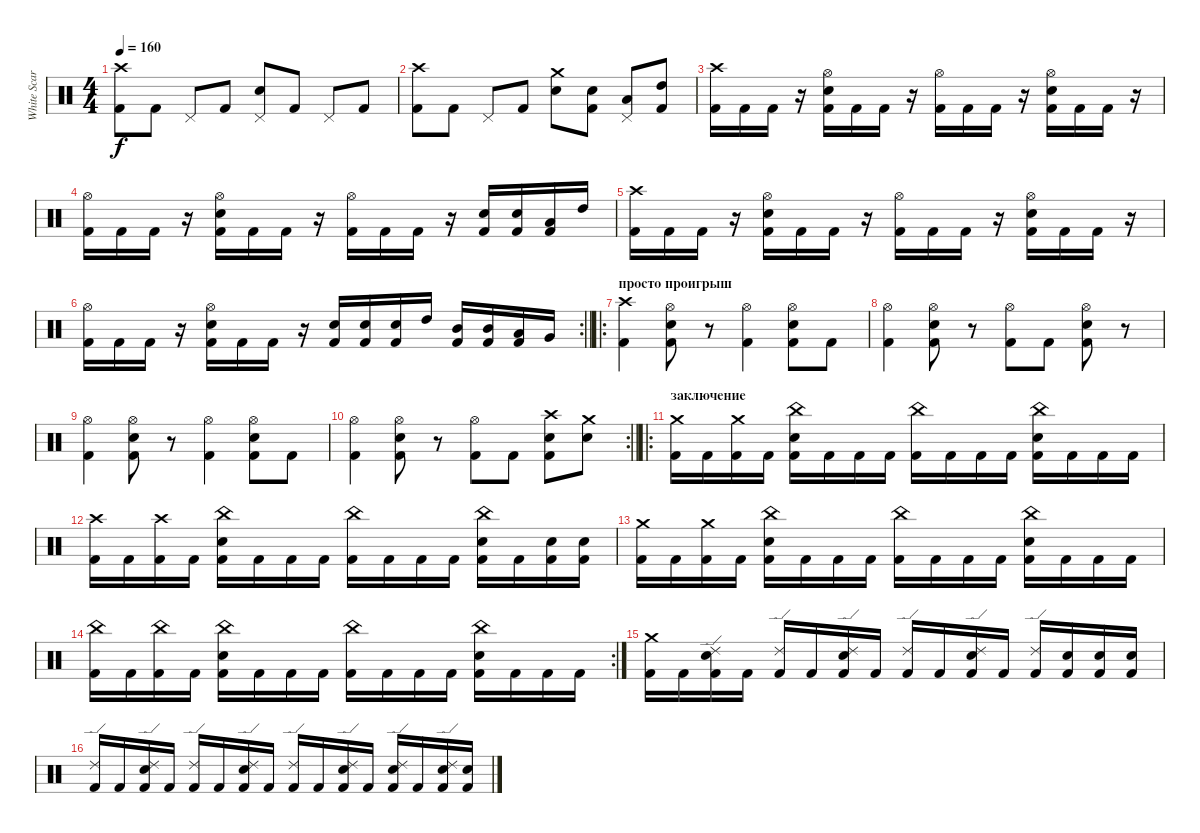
\track ("White Scar" "White Scar") {instrument percussion}
\staff {score}
\articulation defaults
\ts (4 4)
\tempo 160
\clef neutral
\ks c
("Crash high (hit)" "Kick (hit) 2").8{dy f} "Kick (hit) 2".8 "Pedal Hi-Hat (hit)".8 "Kick (hit) 2".8 ("Pedal Hi-Hat (hit)" "Snare (hit) 2").8 "Kick (hit) 2".8 "Pedal Hi-Hat (hit)".8 "Kick (hit) 2".8 |
("Crash high (hit)" "Kick (hit) 2").8 "Kick (hit) 2".8 "Pedal Hi-Hat (hit)".8 "Kick (hit) 2".8 ("Crash medium (hit)" "Snare (hit) 2").8 ("Snare (hit) 2" "Kick (hit) 2").8 ("Pedal Hi-Hat (hit)" "Low Tom (hit)").8 ("High Tom (hit)" "Kick (hit) 2").8 |
("Crash high (hit)" "Kick (hit) 2").16 "Kick (hit) 2".16 "Kick (hit) 2".16 r.16 ("Snare (hit) 2" "Hi-Hat (open)" "Kick (hit) 2").16 "Kick (hit) 2".16 "Kick (hit) 2".16 r.16 ("Hi-Hat (open)" "Kick (hit) 2").16 "Kick (hit) 2".16 "Kick (hit) 2".16 r.16 ("Snare (hit) 2" "Hi-Hat (open)" "Kick (hit) 2").16 "Kick (hit) 2".16 "Kick (hit) 2".16 r.16 |
("Hi-Hat (open)" "Kick (hit) 2").16 "Kick (hit) 2".16 "Kick (hit) 2".16 r.16 ("Snare (hit) 2" "Hi-Hat (open)" "Kick (hit) 2").16 "Kick (hit) 2".16 "Kick (hit) 2".16 r.16 ("Hi-Hat (open)" "Kick (hit) 2").16 "Kick (hit) 2".16 "Kick (hit) 2".16 r.16 ("Snare (hit) 2" "Kick (hit) 2").16 ("Snare (hit) 2" "Kick (hit) 2").16 ("Low Tom (hit)" "Kick (hit) 2").16 "High Tom (hit)".16 |
("Crash high (hit)" "Kick (hit) 2").16 "Kick (hit) 2".16 "Kick (hit) 2".16 r.16 ("Snare (hit) 2" "Hi-Hat (open)" "Kick (hit) 2").16 "Kick (hit) 2".16 "Kick (hit) 2".16 r.16 ("Hi-Hat (open)" "Kick (hit) 2").16 "Kick (hit) 2".16 "Kick (hit) 2".16 r.16 ("Snare (hit) 2" "Hi-Hat (open)" "Kick (hit) 2").16 "Kick (hit) 2".16 "Kick (hit) 2".16 r.16 |
\rc 2
\barLineRight lightlight
("Hi-Hat (open)" "Kick (hit) 2").16 "Kick (hit) 2".16 "Kick (hit) 2".16 r.16 ("Snare (hit) 2" "Hi-Hat (open)" "Kick (hit) 2").16 "Kick (hit) 2".16 "Kick (hit) 2".16 r.16 ("Snare (hit) 2" "Kick (hit) 2").16 ("Snare (hit) 2" "Kick (hit) 2").16 ("Snare (hit) 2" "Kick (hit) 2").16 "High Tom (hit)".16 ("Mid Tom (hit)" "Kick (hit) 2").16 ("Mid Tom (hit)" "Kick (hit) 2").16 ("Low Tom (hit)" "Kick (hit) 2").16 "Very Low Tom (hit)".16 |
\ro
\section ("" "просто проигрыш")
("Crash high (hit)" "Kick (hit) 2").4 ("Hi-Hat (open)" "Snare (hit) 2" "Kick (hit) 2").8 r.8 ("Hi-Hat (open)" "Kick (hit) 2").4 ("Hi-Hat (open)" "Snare (hit) 2" "Kick (hit) 2").8 "Kick (hit) 2".8 |
("Hi-Hat (open)" "Kick (hit) 2").4 ("Hi-Hat (open)" "Snare (hit) 2" "Kick (hit) 2").8 r.8 ("Hi-Hat (open)" "Kick (hit) 2").8 "Kick (hit) 2".8 ("Hi-Hat (open)" "Snare (hit) 2" "Kick (hit) 2").8 r.8 |
("Hi-Hat (open)" "Kick (hit) 2").4 ("Hi-Hat (open)" "Snare (hit) 2" "Kick (hit) 2").8 r.8 ("Hi-Hat (open)" "Kick (hit) 2").4 ("Hi-Hat (open)" "Snare (hit) 2" "Kick (hit) 2").8 "Kick (hit) 2".8 |
\rc 2
\barLineRight lightlight
("Hi-Hat (open)" "Kick (hit) 2").4 ("Hi-Hat (open)" "Snare (hit) 2" "Kick (hit) 2").8 r.8 ("Hi-Hat (open)" "Kick (hit) 2").8 "Kick (hit) 2".8 ("Crash high (hit)" "Snare (hit) 2" "Kick (hit) 2").8 ("Crash medium (hit)" "Snare (hit) 2").8 |
\ro
\section ("" "заключение")
("Crash medium (hit)" "Kick (hit) 2").16 "Kick (hit) 2".16 ("Crash medium (hit)" "Kick (hit) 2").16 "Kick (hit) 2".16 ("China (hit)" "Snare (hit) 2" "Kick (hit) 2").16 "Kick (hit) 2".16 "Kick (hit) 2".16 "Kick (hit) 2".16 ("China (hit)" "Kick (hit) 2").16 "Kick (hit) 2".16 "Kick (hit) 2".16 "Kick (hit) 2".16 ("China (hit)" "Snare (hit) 2" "Kick (hit) 2").16 "Kick (hit) 2".16 "Kick (hit) 2".16 "Kick (hit) 2".16 |
("Crash high (hit)" "Kick (hit) 2").16 "Kick (hit) 2".16 ("Crash high (hit)" "Kick (hit) 2").16 "Kick (hit) 2".16 ("China (hit)" "Snare (hit) 2" "Kick (hit) 2").16 "Kick (hit) 2".16 "Kick (hit) 2".16 "Kick (hit) 2".16 ("China (hit)" "Kick (hit) 2").16 "Kick (hit) 2".16 "Kick (hit) 2".16 "Kick (hit) 2".16 ("China (hit)" "Snare (hit) 2" "Kick (hit) 2").16 "Kick (hit) 2".16 ("Snare (hit) 2" "Kick (hit) 2").16 ("Snare (hit) 2" "Kick (hit) 2").16 |
("Crash medium (hit)" "Kick (hit) 2").16 "Kick (hit) 2".16 ("Crash medium (hit)" "Kick (hit) 2").16 "Kick (hit) 2".16 ("China (hit)" "Snare (hit) 2" "Kick (hit) 2").16 "Kick (hit) 2".16 "Kick (hit) 2".16 "Kick (hit) 2".16 ("China (hit)" "Kick (hit) 2").16 "Kick (hit) 2".16 "Kick (hit) 2".16 "Kick (hit) 2".16 ("China (hit)" "Snare (hit) 2" "Kick (hit) 2").16 "Kick (hit) 2".16 "Kick (hit) 2".16 "Kick (hit) 2".16 |
\rc 2
("China (hit)" "Kick (hit) 2").16 "Kick (hit) 2".16 ("China (hit)" "Kick (hit) 2").16 "Kick (hit) 2".16 ("China (hit)" "Snare (hit) 2" "Kick (hit) 2").16 "Kick (hit) 2".16 "Kick (hit) 2".16 "Kick (hit) 2".16 ("China (hit)" "Kick (hit) 2").16 "Kick (hit) 2".16 "Kick (hit) 2".16 "Kick (hit) 2".16 ("China (hit)" "Snare (hit) 2" "Kick (hit) 2").16 "Kick (hit) 2".16 "Kick (hit) 2".16 "Kick (hit) 2".16 |
("Crash medium (hit)" "Kick (hit) 2").16 "Kick (hit) 2".16 ("Ride (edge) 2" "Snare (hit) 2" "Kick (hit) 2").16 "Kick (hit) 2".16 ("Ride (edge) 2" "Kick (hit) 2").16 "Kick (hit) 2".16 ("Ride (edge) 2" "Snare (hit) 2" "Kick (hit) 2").16 "Kick (hit) 2".16 ("Ride (edge) 2" "Kick (hit) 2").16 "Kick (hit) 2".16 ("Ride (edge) 2" "Snare (hit) 2" "Kick (hit) 2").16 "Kick (hit) 2".16 ("Ride (edge) 2" "Kick (hit) 2").16 ("Snare (hit) 2" "Kick (hit) 2").16 ("Snare (hit) 2" "Kick (hit) 2").16 ("Snare (hit) 2" "Kick (hit) 2").16 |
("Ride (edge) 2" "Kick (hit) 2").16 "Kick (hit) 2".16 ("Ride (edge) 2" "Snare (hit) 2" "Kick (hit) 2").16 "Kick (hit) 2".16 ("Ride (edge) 2" "Kick (hit) 2").16 "Kick (hit) 2".16 ("Ride (edge) 2" "Snare (hit) 2" "Kick (hit) 2").16 "Kick (hit) 2".16 ("Ride (edge) 2" "Kick (hit) 2").16 "Kick (hit) 2".16 ("Ride (edge) 2" "Snare (hit) 2" "Kick (hit) 2").16 "Kick (hit) 2".16 ("Ride (edge) 2" "Snare (hit) 2" "Kick (hit) 2").16 "Kick (hit) 2".16 ("Ride (edge) 2" "Snare (hit) 2" "Kick (hit) 2").16 ("Snare (hit) 2" "Kick (hit) 2").16
